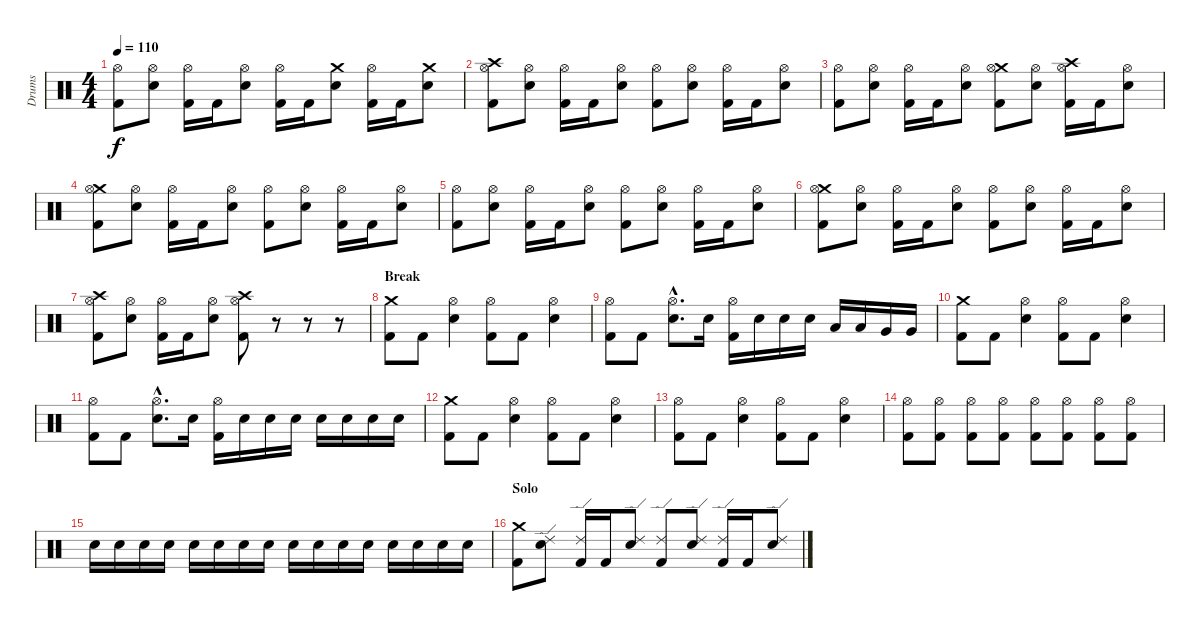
\track ("Drums" "Drums") {instrument percussion}
\staff {score}
\articulation defaults
\ts (4 4)
\tempo 110
\clef neutral
\ks c
("Hi-Hat (open)" "Kick (hit) 2").8{dy f} ("Hi-Hat (open)" "Electric Snare (hit)").8 ("Hi-Hat (open)" "Kick (hit) 2").16 "Kick (hit) 2".16 ("Hi-Hat (open)" "Electric Snare (hit)").8 ("Hi-Hat (open)" "Kick (hit) 2").16 "Kick (hit) 2".16 ("Crash medium (hit)" "Electric Snare (hit)").8 ("Hi-Hat (open)" "Kick (hit) 2").16 "Kick (hit) 2".16 ("Crash medium (hit)" "Electric Snare (hit)").8 |
("Crash high (hit)" "Hi-Hat (open)" "Kick (hit) 2").8 ("Hi-Hat (open)" "Electric Snare (hit)").8 ("Hi-Hat (open)" "Kick (hit) 2").16 "Kick (hit) 2".16 ("Hi-Hat (open)" "Electric Snare (hit)").8 ("Hi-Hat (open)" "Kick (hit) 2").8 ("Hi-Hat (open)" "Electric Snare (hit)").8 ("Hi-Hat (open)" "Kick (hit) 2").16 "Kick (hit) 2".16 ("Hi-Hat (open)" "Electric Snare (hit)").8 |
("Hi-Hat (open)" "Kick (hit) 2").8 ("Hi-Hat (open)" "Electric Snare (hit)").8 ("Hi-Hat (open)" "Kick (hit) 2").16 "Kick (hit) 2".16 ("Hi-Hat (open)" "Electric Snare (hit)").8 ("Crash medium (hit)" "Hi-Hat (open)" "Kick (hit) 2").8 ("Hi-Hat (open)" "Electric Snare (hit)").8 ("Crash high (hit)" "Hi-Hat (open)" "Kick (hit) 2").16 "Kick (hit) 2".16 ("Hi-Hat (open)" "Electric Snare (hit)").8 |
("Crash medium (hit)" "Hi-Hat (open)" "Kick (hit) 2").8 ("Hi-Hat (open)" "Electric Snare (hit)").8 ("Hi-Hat (open)" "Kick (hit) 2").16 "Kick (hit) 2".16 ("Hi-Hat (open)" "Electric Snare (hit)").8 ("Hi-Hat (open)" "Kick (hit) 2").8 ("Hi-Hat (open)" "Electric Snare (hit)").8 ("Hi-Hat (open)" "Kick (hit) 2").16 "Kick (hit) 2".16 ("Hi-Hat (open)" "Electric Snare (hit)").8 |
("Hi-Hat (open)" "Kick (hit) 2").8 ("Hi-Hat (open)" "Electric Snare (hit)").8 ("Hi-Hat (open)" "Kick (hit) 2").16 "Kick (hit) 2".16 ("Hi-Hat (open)" "Electric Snare (hit)").8 ("Hi-Hat (open)" "Kick (hit) 2").8 ("Hi-Hat (open)" "Electric Snare (hit)").8 ("Hi-Hat (open)" "Kick (hit) 2").16 "Kick (hit) 2".16 ("Hi-Hat (open)" "Electric Snare (hit)").8 |
("Crash medium (hit)" "Hi-Hat (open)" "Kick (hit) 2").8 ("Hi-Hat (open)" "Electric Snare (hit)").8 ("Hi-Hat (open)" "Kick (hit) 2").16 "Kick (hit) 2".16 ("Hi-Hat (open)" "Electric Snare (hit)").8 ("Hi-Hat (open)" "Kick (hit) 2").8 ("Hi-Hat (open)" "Electric Snare (hit)").8 ("Hi-Hat (open)" "Kick (hit) 2").16 "Kick (hit) 2".16 ("Hi-Hat (open)" "Electric Snare (hit)").8 |
("Crash high (hit)" "Hi-Hat (open)" "Kick (hit) 2").8 ("Hi-Hat (open)" "Electric Snare (hit)").8 ("Hi-Hat (open)" "Kick (hit) 2").16 "Kick (hit) 2".16 ("Hi-Hat (open)" "Electric Snare (hit)").8 ("Crash high (hit)" "Hi-Hat (open)" "Kick (hit) 2").8 r.8 r.8 r.8 |
\section ("" "Break")
("Crash medium (hit)" "Kick (hit) 2").8 "Kick (hit) 2".8 ("Hi-Hat (open)" "Electric Snare (hit)").4 ("Hi-Hat (open)" "Kick (hit) 2").8 "Kick (hit) 2".8 ("Hi-Hat (open)" "Electric Snare (hit)").4 |
("Hi-Hat (open)" "Kick (hit) 2").8 "Kick (hit) 2".8 ("Hi-Hat (open)"{hac} "Electric Snare (hit)"{hac}).8{d} "Electric Snare (hit)".16 ("Hi-Hat (open)" "Kick (hit) 2").16 "Electric Snare (hit)".16 "Electric Snare (hit)".16 "Electric Snare (hit)".16 "Low Tom (hit)".16 "Low Tom (hit)".16 "Very Low Tom (hit)".16 "Very Low Tom (hit)".16 |
("Crash medium (hit)" "Kick (hit) 2").8 "Kick (hit) 2".8 ("Hi-Hat (open)" "Electric Snare (hit)").4 ("Hi-Hat (open)" "Kick (hit) 2").8 "Kick (hit) 2".8 ("Hi-Hat (open)" "Electric Snare (hit)").4 |
("Hi-Hat (open)" "Kick (hit) 2").8 "Kick (hit) 2".8 ("Hi-Hat (open)"{hac} "Electric Snare (hit)"{hac}).8{d} "Electric Snare (hit)".16 ("Hi-Hat (open)" "Kick (hit) 2").16 "Electric Snare (hit)".16 "Electric Snare (hit)".16 "Electric Snare (hit)".16 "Electric Snare (hit)".16 "Electric Snare (hit)".16 "Electric Snare (hit)".16 "Electric Snare (hit)".16 |
("Crash medium (hit)" "Kick (hit) 2").8 "Kick (hit) 2".8 ("Hi-Hat (open)" "Electric Snare (hit)").4 ("Hi-Hat (open)" "Kick (hit) 2").8 "Kick (hit) 2".8 ("Hi-Hat (open)" "Electric Snare (hit)").4 |
("Hi-Hat (open)" "Kick (hit) 2").8 "Kick (hit) 2".8 ("Hi-Hat (open)" "Electric Snare (hit)").4 ("Hi-Hat (open)" "Kick (hit) 2").8 "Kick (hit) 2".8 ("Hi-Hat (open)" "Electric Snare (hit)").4 |
("Hi-Hat (open)" "Kick (hit) 2").8 ("Hi-Hat (open)" "Kick (hit) 2").8 ("Hi-Hat (open)" "Kick (hit) 2").8 ("Hi-Hat (open)" "Kick (hit) 2").8 ("Hi-Hat (open)" "Kick (hit) 2").8 ("Hi-Hat (open)" "Kick (hit) 2").8 ("Hi-Hat (open)" "Kick (hit) 2").8 ("Hi-Hat (open)" "Kick (hit) 2").8 |
"Electric Snare (hit)".16 "Electric Snare (hit)".16 "Electric Snare (hit)".16 "Electric Snare (hit)".16 "Electric Snare (hit)".16 "Electric Snare (hit)".16 "Electric Snare (hit)".16 "Electric Snare (hit)".16 "Electric Snare (hit)".16 "Electric Snare (hit)".16 "Electric Snare (hit)".16 "Electric Snare (hit)".16 "Electric Snare (hit)".16 "Electric Snare (hit)".16 "Electric Snare (hit)".16 "Electric Snare (hit)".16 |
\section ("" "Solo")
("Crash medium (hit)" "Kick (hit) 2").8 ("Ride (edge) 2" "Electric Snare (hit)").8 ("Ride (edge) 2" "Kick (hit) 2").16 "Kick (hit) 2".16 ("Ride (edge) 2" "Electric Snare (hit)").8 ("Ride (edge) 2" "Kick (hit) 2").8 ("Ride (edge) 2" "Electric Snare (hit)").8 ("Ride (edge) 2" "Kick (hit) 2").16 "Kick (hit) 2".16 ("Ride (edge) 2" "Electric Snare (hit)").8
